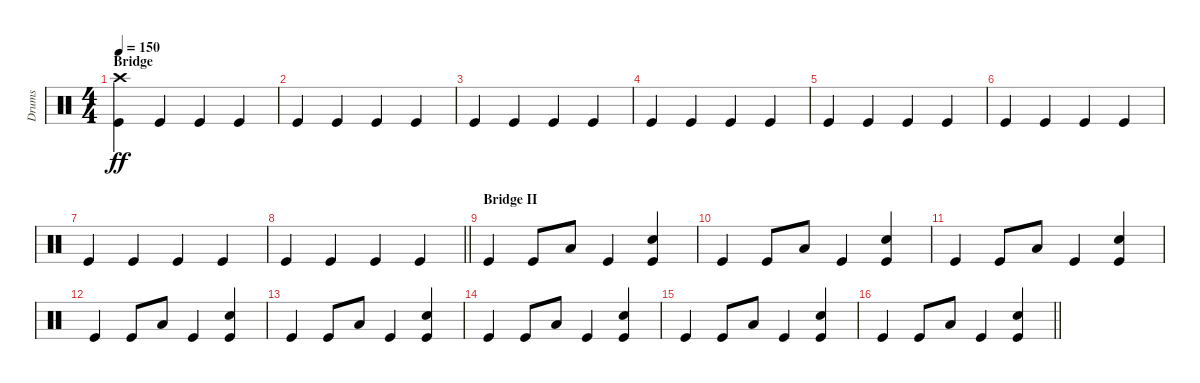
\track ("Drums" "Drums") {instrument percussion}
\staff {score}
\articulation defaults
\ts (4 4)
\section ("" "Bridge")
\tempo 150
\clef neutral
\ks c
("Crash high (hit)" "Kick (hit)").4{dy ff} "Kick (hit)".4 "Kick (hit)".4 "Kick (hit)".4 |
"Kick (hit)".4 "Kick (hit)".4 "Kick (hit)".4 "Kick (hit)".4 |
"Kick (hit)".4 "Kick (hit)".4 "Kick (hit)".4 "Kick (hit)".4 |
"Kick (hit)".4 "Kick (hit)".4 "Kick (hit)".4 "Kick (hit)".4 |
"Kick (hit)".4 "Kick (hit)".4 "Kick (hit)".4 "Kick (hit)".4 |
"Kick (hit)".4 "Kick (hit)".4 "Kick (hit)".4 "Kick (hit)".4 |
"Kick (hit)".4 "Kick (hit)".4 "Kick (hit)".4 "Kick (hit)".4 |
\barLineRight lightlight "Kick (hit)".4 "Kick (hit)".4 "Kick (hit)".4 "Kick (hit)".4
|
\section ("" "Bridge II")
"Kick (hit)".4 "Kick (hit)".8 "Low Tom (hit)".8 "Kick (hit)".4 ("Snare (hit) 2" "Kick (hit)").4 |
"Kick (hit)".4 "Kick (hit)".8 "Low Tom (hit)".8 "Kick (hit)".4 ("Snare (hit) 2" "Kick (hit)").4 |
"Kick (hit)".4 "Kick (hit)".8 "Low Tom (hit)".8 "Kick (hit)".4 ("Snare (hit) 2" "Kick (hit)").4 |
"Kick (hit)".4 "Kick (hit)".8 "Low Tom (hit)".8 "Kick (hit)".4 ("Snare (hit) 2" "Kick (hit)").4 |
"Kick (hit)".4 "Kick (hit)".8 "Low Tom (hit)".8 "Kick (hit)".4 ("Snare (hit) 2" "Kick (hit)").4 |
"Kick (hit)".4 "Kick (hit)".8 "Low Tom (hit)".8 "Kick (hit)".4 ("Snare (hit) 2" "Kick (hit)").4 |
"Kick (hit)".4 "Kick (hit)".8 "Low Tom (hit)".8 "Kick (hit)".4 ("Snare (hit) 2" "Kick (hit)").4 |
\barLineRight lightlight "Kick (hit)".4 "Kick (hit)".8 "Low Tom (hit)".8 "Kick (hit)".4
("Snare (hit) 2" "Kick (hit)").4
